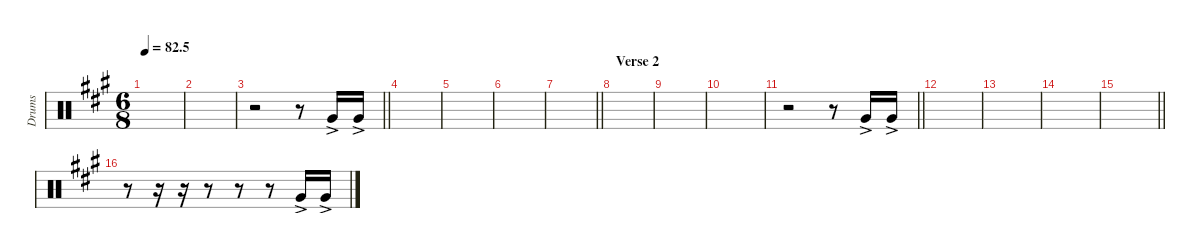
\defaultSystemsLayout 4
\hideDynamics
\bracketExtendMode nobrackets
\otherSystemsTrackNameOrientation horizontal
\track ("Tom 04" "Drums") {instrument percussion}
\staff {score}
\articulation defaults
\ts (6 8)
\tempo
82.5
\accidentals auto
\clef neutral
\ottava regular
\simile none
\scale
0.333333
\ks a
|
\scale
0.333333 |
\scale
0.333333
\barLineRight lightlight
r.2 r.8 "Very Low Tom (hit)"{ac acc forcenatural}.16 "Very Low Tom (hit)"{ac acc forcenatural}.16 |
\scale
0.333333 |
\scale
0.333333 |
\scale
0.333333 |
\scale
0.333333
\barLineRight lightlight
|
\section ("" "Verse 2")
\scale
0.333333 |
\scale
0.333333 |
\scale
0.333333 |
\scale
0.333333
\barLineRight lightlight
r.2 r.8 "Very Low Tom (hit)"{ac acc forcenatural}.16 "Very Low Tom (hit)"{ac acc forcenatural}.16 |
\scale
0.333333 |
\scale
0.333333 |
\scale
0.333333 |
\scale
0.333333
\barLineRight lightlight
|
\scale
0.333333 r.8 r.16 r.16 r.8 r.8 r.8 "Very Low Tom (hit)"{ac acc forcenatural}.16 "Very Low Tom (hit)"{ac acc forcenatural}.16
